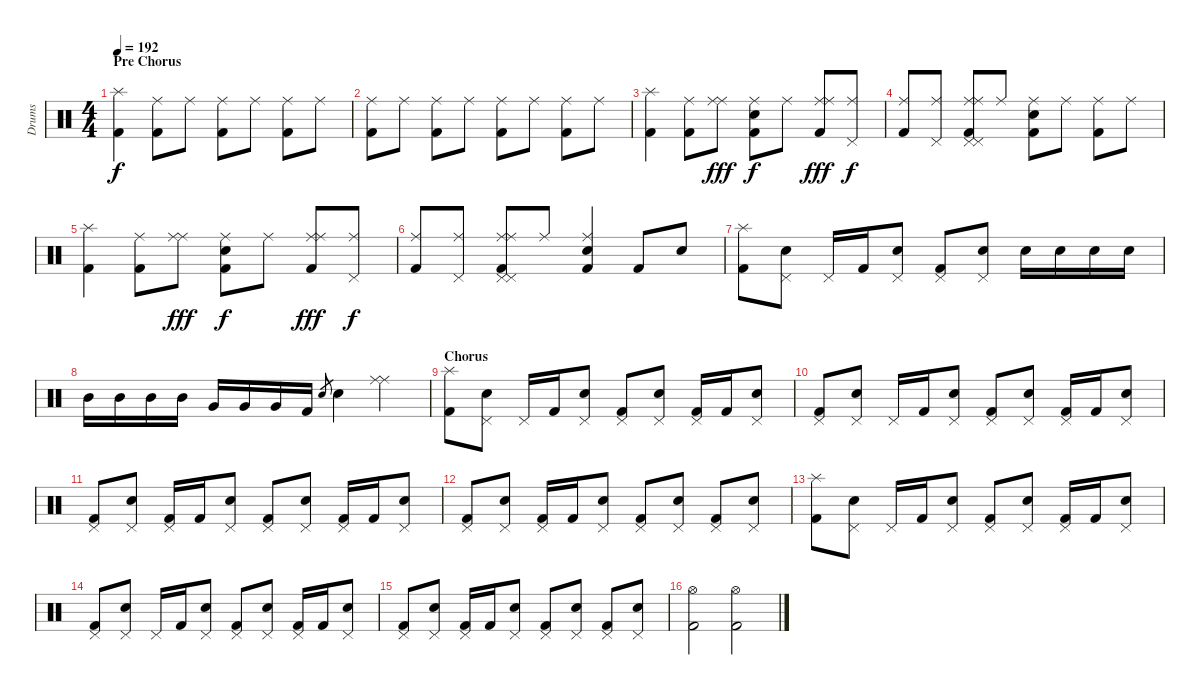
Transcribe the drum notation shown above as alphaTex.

\track ("Drums" "Drums") {instrument percussion}
\staff {score}
\articulation defaults
\ts (4 4)
\section ("" "Pre Chorus")
\tempo 192
\clef neutral
\ks c
("Splash (hit)" "Kick (hit) 2").4{dy f} ("Ride (middle)" "Kick (hit) 2").8 "Ride (middle)".8 ("Ride (middle)" "Kick (hit) 2").8 "Ride (middle)".8 ("Ride (middle)" "Kick (hit) 2").8 "Ride (middle)".8 |
("Ride (middle)" "Kick (hit) 2").8 "Ride (middle)".8 ("Ride (middle)" "Kick (hit) 2").8 "Ride (middle)".8 ("Ride (middle)" "Kick (hit) 2").8 "Ride (middle)".8 ("Ride (middle)" "Kick (hit) 2").8 "Ride (middle)".8 |
("Splash (hit)" "Kick (hit) 2").4 ("Ride (middle)" "Kick (hit) 2").8 ("Ride (middle)" "Ride (middle)").8{dy fff} ("Ride (middle)" "Electric Snare (hit)" "Kick (hit) 2").8{dy f} "Ride (middle)".8 ("Ride (middle)" "Ride (middle)" "Kick (hit) 2").8{dy fff} ("Ride (middle)" "Pedal Hi-Hat (hit)").8{dy f} |
("Ride (middle)" "Kick (hit) 2").8 ("Ride (middle)" "Pedal Hi-Hat (hit)").8 ("Ride (middle)" "Ride (middle)" "Pedal Hi-Hat (hit)" "Pedal Hi-Hat (hit)" "Kick (hit) 2").8 "Ride (middle)".8 ("Ride (middle)" "Electric Snare (hit)" "Kick (hit) 2").8 "Ride (middle)".8 ("Ride (middle)" "Kick (hit) 2").8 "Ride (middle)".8 |
("Splash (hit)" "Kick (hit) 2").4 ("Ride (middle)" "Kick (hit) 2").8 ("Ride (middle)" "Ride (middle)").8{dy fff} ("Ride (middle)" "Electric Snare (hit)" "Kick (hit) 2").8{dy f} "Ride (middle)".8 ("Ride (middle)" "Ride (middle)" "Kick (hit) 2").8{dy fff} ("Ride (middle)" "Pedal Hi-Hat (hit)").8{dy f} |
("Ride (middle)" "Kick (hit) 2").8 ("Ride (middle)" "Pedal Hi-Hat (hit)").8 ("Ride (middle)" "Ride (middle)" "Pedal Hi-Hat (hit)" "Pedal Hi-Hat (hit)" "Kick (hit) 2").8 "Ride (middle)".8 ("Ride (middle)" "Electric Snare (hit)" "Kick (hit) 2").4 "Kick (hit) 2".8 "Electric Snare (hit)".8 |
("Splash (hit)" "Kick (hit) 2").8 ("Pedal Hi-Hat (hit)" "Electric Snare (hit)").8 "Pedal Hi-Hat (hit)".16 "Kick (hit) 2".16 ("Pedal Hi-Hat (hit)" "Electric Snare (hit)").8 ("Pedal Hi-Hat (hit)" "Kick (hit) 2").8 ("Pedal Hi-Hat (hit)" "Electric Snare (hit)").8 "Electric Snare (hit)".16 "Electric Snare (hit)".16 "Electric Snare (hit)".16 "Electric Snare (hit)".16 |
"Mid Tom (hit)".16 "Mid Tom (hit)".16 "Mid Tom (hit)".16 "Mid Tom (hit)".16 "Very Low Tom (hit)".16 "Very Low Tom (hit)".16 "Very Low Tom (hit)".16 "Kick (hit) 2".16 "Electric Snare (hit)".8{gr} "Electric Snare (hit)".4 ("Ride (middle)" "Ride (middle)").4 |
\section ("" "Chorus")
("Splash (hit)" "Kick (hit) 2").8 ("Pedal Hi-Hat (hit)" "Electric Snare (hit)").8 "Pedal Hi-Hat (hit)".16 "Kick (hit) 2".16 ("Pedal Hi-Hat (hit)" "Electric Snare (hit)").8 ("Pedal Hi-Hat (hit)" "Kick (hit) 2").8 ("Pedal Hi-Hat (hit)" "Electric Snare (hit)").8 ("Pedal Hi-Hat (hit)" "Kick (hit) 2").16 "Kick (hit) 2".16 ("Pedal Hi-Hat (hit)" "Electric Snare (hit)").8 |
("Pedal Hi-Hat (hit)" "Kick (hit) 2").8 ("Pedal Hi-Hat (hit)" "Electric Snare (hit)").8 "Pedal Hi-Hat (hit)".16 "Kick (hit) 2".16 ("Pedal Hi-Hat (hit)" "Electric Snare (hit)").8 ("Pedal Hi-Hat (hit)" "Kick (hit) 2").8 ("Pedal Hi-Hat (hit)" "Electric Snare (hit)").8 ("Pedal Hi-Hat (hit)" "Kick (hit) 2").16 "Kick (hit) 2".16 ("Pedal Hi-Hat (hit)" "Electric Snare (hit)").8 |
("Pedal Hi-Hat (hit)" "Kick (hit) 2").8 ("Pedal Hi-Hat (hit)" "Electric Snare (hit)").8 ("Pedal Hi-Hat (hit)" "Kick (hit) 2").16 "Kick (hit) 2".16 ("Pedal Hi-Hat (hit)" "Electric Snare (hit)").8 ("Pedal Hi-Hat (hit)" "Kick (hit) 2").8 ("Pedal Hi-Hat (hit)" "Electric Snare (hit)").8 ("Pedal Hi-Hat (hit)" "Kick (hit) 2").16 "Kick (hit) 2".16 ("Pedal Hi-Hat (hit)" "Electric Snare (hit)").8 |
("Pedal Hi-Hat (hit)" "Kick (hit) 2").8 ("Pedal Hi-Hat (hit)" "Electric Snare (hit)").8 ("Pedal Hi-Hat (hit)" "Kick (hit) 2").16 "Kick (hit) 2".16 ("Pedal Hi-Hat (hit)" "Electric Snare (hit)").8 ("Pedal Hi-Hat (hit)" "Kick (hit) 2").8 ("Pedal Hi-Hat (hit)" "Electric Snare (hit)").8 ("Pedal Hi-Hat (hit)" "Kick (hit) 2").8 ("Pedal Hi-Hat (hit)" "Electric Snare (hit)").8 |
("Splash (hit)" "Kick (hit) 2").8 ("Pedal Hi-Hat (hit)" "Electric Snare (hit)").8 "Pedal Hi-Hat (hit)".16 "Kick (hit) 2".16 ("Pedal Hi-Hat (hit)" "Electric Snare (hit)").8 ("Pedal Hi-Hat (hit)" "Kick (hit) 2").8 ("Pedal Hi-Hat (hit)" "Electric Snare (hit)").8 ("Pedal Hi-Hat (hit)" "Kick (hit) 2").16 "Kick (hit) 2".16 ("Pedal Hi-Hat (hit)" "Electric Snare (hit)").8 |
("Pedal Hi-Hat (hit)" "Kick (hit) 2").8 ("Pedal Hi-Hat (hit)" "Electric Snare (hit)").8 "Pedal Hi-Hat (hit)".16 "Kick (hit) 2".16 ("Pedal Hi-Hat (hit)" "Electric Snare (hit)").8 ("Pedal Hi-Hat (hit)" "Kick (hit) 2").8 ("Pedal Hi-Hat (hit)" "Electric Snare (hit)").8 ("Pedal Hi-Hat (hit)" "Kick (hit) 2").16 "Kick (hit) 2".16 ("Pedal Hi-Hat (hit)" "Electric Snare (hit)").8 |
("Pedal Hi-Hat (hit)" "Kick (hit) 2").8 ("Pedal Hi-Hat (hit)" "Electric Snare (hit)").8 ("Pedal Hi-Hat (hit)" "Kick (hit) 2").16 "Kick (hit) 2".16 ("Pedal Hi-Hat (hit)" "Electric Snare (hit)").8 ("Pedal Hi-Hat (hit)" "Kick (hit) 2").8 ("Pedal Hi-Hat (hit)" "Electric Snare (hit)").8 ("Pedal Hi-Hat (hit)" "Kick (hit) 2").8 ("Pedal Hi-Hat (hit)" "Electric Snare (hit)").8 |
("Hi-Hat (open)" "Kick (hit) 2").2 ("Hi-Hat (open)" "Kick (hit) 2").2
